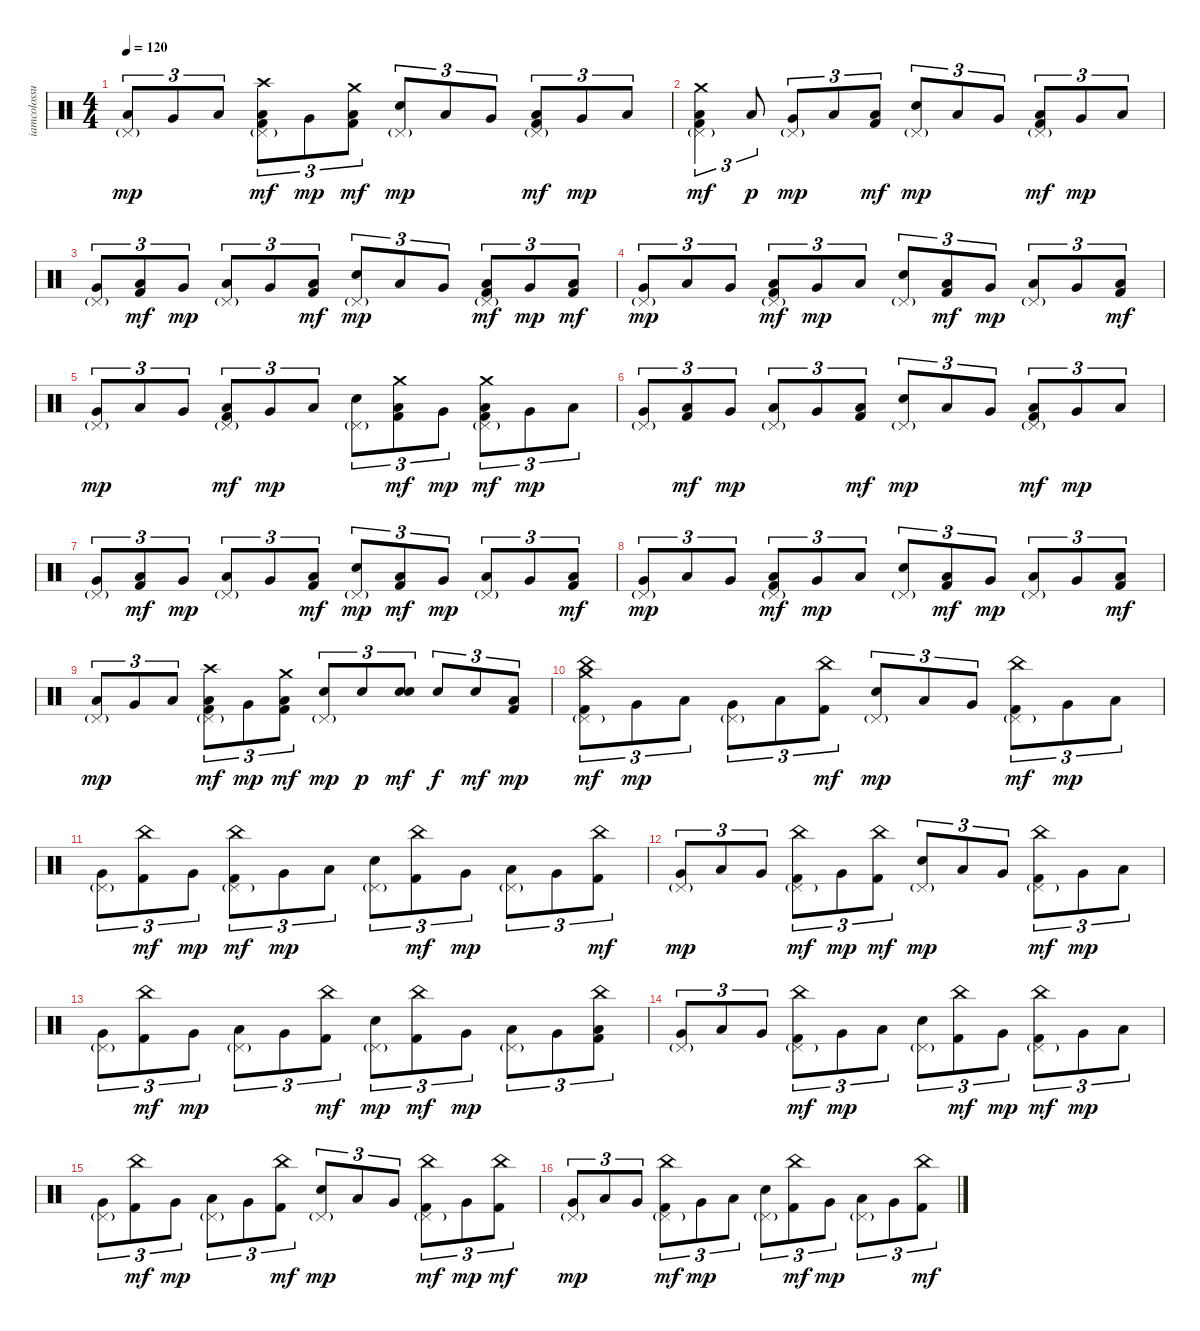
\track ("iamcolossus(Thomas Haake)" "iamcolossu") {instrument percussion}
\staff {score}
\articulation defaults
\ts (4 4)
\tempo 120
\clef neutral
\ks c
("Pedal Hi-Hat (hit)"{g} "Low Floor Tom (hit)").8{tu (3 2) dy mp} "Very Low Tom (hit)".8{tu (3 2)} "Low Floor Tom (hit)".8{tu (3 2)} ("Pedal Hi-Hat (hit)"{g} "Crash high (hit)" "Low Floor Tom (hit)" "Kick (hit) 2").8{tu (3 2) dy mf} "Very Low Tom (hit)".8{tu (3 2) dy mp} ("Crash medium (hit)" "Low Floor Tom (hit)" "Kick (hit) 2").8{tu (3 2) dy mf} ("Pedal Hi-Hat (hit)"{g} "Electric Snare (hit)").8{tu (3 2) dy mp} "Low Floor Tom (hit)".8{tu (3 2)} "Very Low Tom (hit)".8{tu (3 2)} ("Pedal Hi-Hat (hit)"{g} "Low Floor Tom (hit)" "Kick (hit) 2").8{tu (3 2) dy mf} "Very Low Tom (hit)".8{tu (3 2) dy mp} "Low Floor Tom (hit)".8{tu (3 2)} |
("Pedal Hi-Hat (hit)"{g} "Crash medium (hit)" "Low Floor Tom (hit)" "Kick (hit) 2").4{tu (3 2) dy mf} "Low Floor Tom (hit)".8{tu (3 2) dy p} ("Pedal Hi-Hat (hit)"{g} "Very Low Tom (hit)").8{tu (3 2) dy mp} "Low Floor Tom (hit)".8{tu (3 2)} ("Low Floor Tom (hit)" "Kick (hit) 2").8{tu (3 2) dy mf} ("Pedal Hi-Hat (hit)"{g} "Electric Snare (hit)").8{tu (3 2) dy mp} "Low Floor Tom (hit)".8{tu (3 2)} "Very Low Tom (hit)".8{tu (3 2)} ("Pedal Hi-Hat (hit)"{g} "Low Floor Tom (hit)" "Kick (hit) 2").8{tu (3 2) dy mf} "Very Low Tom (hit)".8{tu (3 2) dy mp} "Low Floor Tom (hit)".8{tu (3 2)} |
("Pedal Hi-Hat (hit)"{g} "Very Low Tom (hit)").8{tu (3 2)} ("Low Floor Tom (hit)" "Kick (hit) 2").8{tu (3 2) dy mf} "Very Low Tom (hit)".8{tu (3 2) dy mp} ("Pedal Hi-Hat (hit)"{g} "Low Floor Tom (hit)").8{tu (3 2)} "Very Low Tom (hit)".8{tu (3 2)} ("Low Floor Tom (hit)" "Kick (hit) 2").8{tu (3 2) dy mf} ("Pedal Hi-Hat (hit)"{g} "Electric Snare (hit)").8{tu (3 2) dy mp} "Low Floor Tom (hit)".8{tu (3 2)} "Very Low Tom (hit)".8{tu (3 2)} ("Pedal Hi-Hat (hit)"{g} "Low Floor Tom (hit)" "Kick (hit) 2").8{tu (3 2) dy mf} "Very Low Tom (hit)".8{tu (3 2) dy mp} ("Low Floor Tom (hit)" "Kick (hit) 2").8{tu (3 2) dy mf} |
("Pedal Hi-Hat (hit)"{g} "Very Low Tom (hit)").8{tu (3 2) dy mp} "Low Floor Tom (hit)".8{tu (3 2)} "Very Low Tom (hit)".8{tu (3 2)} ("Pedal Hi-Hat (hit)"{g} "Low Floor Tom (hit)" "Kick (hit) 2").8{tu (3 2) dy mf} "Very Low Tom (hit)".8{tu (3 2) dy mp} "Low Floor Tom (hit)".8{tu (3 2)} ("Pedal Hi-Hat (hit)"{g} "Electric Snare (hit)").8{tu (3 2)} ("Low Floor Tom (hit)" "Kick (hit) 2").8{tu (3 2) dy mf} "Very Low Tom (hit)".8{tu (3 2) dy mp} ("Pedal Hi-Hat (hit)"{g} "Low Floor Tom (hit)").8{tu (3 2)} "Very Low Tom (hit)".8{tu (3 2)} ("Low Floor Tom (hit)" "Kick (hit) 2").8{tu (3 2) dy mf} |
("Pedal Hi-Hat (hit)"{g} "Very Low Tom (hit)").8{tu (3 2) dy mp} "Low Floor Tom (hit)".8{tu (3 2)} "Very Low Tom (hit)".8{tu (3 2)} ("Pedal Hi-Hat (hit)"{g} "Low Floor Tom (hit)" "Kick (hit) 2").8{tu (3 2) dy mf} "Very Low Tom (hit)".8{tu (3 2) dy mp} "Low Floor Tom (hit)".8{tu (3 2)} ("Pedal Hi-Hat (hit)"{g} "Electric Snare (hit)").8{tu (3 2)} ("Crash medium (hit)" "Low Floor Tom (hit)" "Kick (hit) 2").8{tu (3 2) dy mf} "Very Low Tom (hit)".8{tu (3 2) dy mp} ("Pedal Hi-Hat (hit)"{g} "Crash medium (hit)" "Low Floor Tom (hit)" "Kick (hit) 2").8{tu (3 2) dy mf} "Very Low Tom (hit)".8{tu (3 2) dy mp} "Low Floor Tom (hit)".8{tu (3 2)} |
("Pedal Hi-Hat (hit)"{g} "Very Low Tom (hit)").8{tu (3 2)} ("Low Floor Tom (hit)" "Kick (hit) 2").8{tu (3 2) dy mf} "Very Low Tom (hit)".8{tu (3 2) dy mp} ("Pedal Hi-Hat (hit)"{g} "Low Floor Tom (hit)").8{tu (3 2)} "Very Low Tom (hit)".8{tu (3 2)} ("Low Floor Tom (hit)" "Kick (hit) 2").8{tu (3 2) dy mf} ("Pedal Hi-Hat (hit)"{g} "Electric Snare (hit)").8{tu (3 2) dy mp} "Low Floor Tom (hit)".8{tu (3 2)} "Very Low Tom (hit)".8{tu (3 2)} ("Pedal Hi-Hat (hit)"{g} "Low Floor Tom (hit)" "Kick (hit) 2").8{tu (3 2) dy mf} "Very Low Tom (hit)".8{tu (3 2) dy mp} "Low Floor Tom (hit)".8{tu (3 2)} |
("Pedal Hi-Hat (hit)"{g} "Very Low Tom (hit)").8{tu (3 2)} ("Low Floor Tom (hit)" "Kick (hit) 2").8{tu (3 2) dy mf} "Very Low Tom (hit)".8{tu (3 2) dy mp} ("Pedal Hi-Hat (hit)"{g} "Low Floor Tom (hit)").8{tu (3 2)} "Very Low Tom (hit)".8{tu (3 2)} ("Low Floor Tom (hit)" "Kick (hit) 2").8{tu (3 2) dy mf} ("Pedal Hi-Hat (hit)"{g} "Electric Snare (hit)").8{tu (3 2) dy mp} ("Low Floor Tom (hit)" "Kick (hit) 2").8{tu (3 2) dy mf} "Very Low Tom (hit)".8{tu (3 2) dy mp} ("Pedal Hi-Hat (hit)"{g} "Low Floor Tom (hit)").8{tu (3 2)} "Very Low Tom (hit)".8{tu (3 2)} ("Low Floor Tom (hit)" "Kick (hit) 2").8{tu (3 2) dy mf} |
("Pedal Hi-Hat (hit)"{g} "Very Low Tom (hit)").8{tu (3 2) dy mp} "Low Floor Tom (hit)".8{tu (3 2)} "Very Low Tom (hit)".8{tu (3 2)} ("Pedal Hi-Hat (hit)"{g} "Low Floor Tom (hit)" "Kick (hit) 2").8{tu (3 2) dy mf} "Very Low Tom (hit)".8{tu (3 2) dy mp} "Low Floor Tom (hit)".8{tu (3 2)} ("Pedal Hi-Hat (hit)"{g} "Electric Snare (hit)").8{tu (3 2)} ("Low Floor Tom (hit)" "Kick (hit) 2").8{tu (3 2) dy mf} "Very Low Tom (hit)".8{tu (3 2) dy mp} ("Pedal Hi-Hat (hit)"{g} "Low Floor Tom (hit)").8{tu (3 2)} "Very Low Tom (hit)".8{tu (3 2)} ("Low Floor Tom (hit)" "Kick (hit) 2").8{tu (3 2) dy mf} |
("Pedal Hi-Hat (hit)"{g} "Low Floor Tom (hit)").8{tu (3 2) dy mp} "Very Low Tom (hit)".8{tu (3 2)} "Low Floor Tom (hit)".8{tu (3 2)} ("Pedal Hi-Hat (hit)"{g} "Crash high (hit)" "Low Floor Tom (hit)" "Kick (hit) 2").8{tu (3 2) dy mf} "Very Low Tom (hit)".8{tu (3 2) dy mp} ("Crash medium (hit)" "Low Floor Tom (hit)" "Kick (hit) 2").8{tu (3 2) dy mf} ("Pedal Hi-Hat (hit)"{g} "Electric Snare (hit)").8{tu (3 2) dy mp} "Electric Snare (hit)".8{tu (3 2) dy p} ("Electric Snare (hit)" "Electric Snare (hit)").8{tu (3 2) bd 120 dy mf} "Electric Snare (hit)".8{tu (3 2) dy f} "Electric Snare (hit)".8{tu (3 2) dy mf} ("Low Floor Tom (hit)" "Kick (hit) 2").8{tu (3 2) dy mp} |
("Pedal Hi-Hat (hit)"{g} "Crash medium (hit)" "China (hit)" "Kick (hit) 2").8{tu (3 2) dy mf} "Very Low Tom (hit)".8{tu (3 2) dy mp} "Low Floor Tom (hit)".8{tu (3 2)} ("Pedal Hi-Hat (hit)"{g} "Very Low Tom (hit)").8{tu (3 2)} "Low Floor Tom (hit)".8{tu (3 2)} ("China (hit)" "Kick (hit) 2").8{tu (3 2) dy mf} ("Pedal Hi-Hat (hit)"{g} "Electric Snare (hit)").8{tu (3 2) dy mp} "Low Floor Tom (hit)".8{tu (3 2)} "Very Low Tom (hit)".8{tu (3 2)} ("Pedal Hi-Hat (hit)"{g} "China (hit)" "Kick (hit) 2").8{tu (3 2) dy mf} "Very Low Tom (hit)".8{tu (3 2) dy mp} "Low Floor Tom (hit)".8{tu (3 2)} |
("Pedal Hi-Hat (hit)"{g} "Very Low Tom (hit)").8{tu (3 2)} ("China (hit)" "Kick (hit) 2").8{tu (3 2) dy mf} "Very Low Tom (hit)".8{tu (3 2) dy mp} ("Pedal Hi-Hat (hit)"{g} "China (hit)" "Kick (hit) 2").8{tu (3 2) dy mf} "Very Low Tom (hit)".8{tu (3 2) dy mp} "Low Floor Tom (hit)".8{tu (3 2)} ("Pedal Hi-Hat (hit)"{g} "Electric Snare (hit)").8{tu (3 2)} ("China (hit)" "Kick (hit) 2").8{tu (3 2) dy mf} "Very Low Tom (hit)".8{tu (3 2) dy mp} ("Pedal Hi-Hat (hit)"{g} "Low Floor Tom (hit)").8{tu (3 2)} "Very Low Tom (hit)".8{tu (3 2)} ("China (hit)" "Kick (hit) 2").8{tu (3 2) dy mf} |
("Pedal Hi-Hat (hit)"{g} "Very Low Tom (hit)").8{tu (3 2) dy mp} "Low Floor Tom (hit)".8{tu (3 2)} "Very Low Tom (hit)".8{tu (3 2)} ("Pedal Hi-Hat (hit)"{g} "China (hit)" "Kick (hit) 2").8{tu (3 2) dy mf} "Very Low Tom (hit)".8{tu (3 2) dy mp} ("China (hit)" "Kick (hit) 2").8{tu (3 2) dy mf} ("Pedal Hi-Hat (hit)"{g} "Electric Snare (hit)").8{tu (3 2) dy mp} "Low Floor Tom (hit)".8{tu (3 2)} "Very Low Tom (hit)".8{tu (3 2)} ("Pedal Hi-Hat (hit)"{g} "China (hit)" "Kick (hit) 2").8{tu (3 2) dy mf} "Very Low Tom (hit)".8{tu (3 2) dy mp} "Low Floor Tom (hit)".8{tu (3 2)} |
("Pedal Hi-Hat (hit)"{g} "Very Low Tom (hit)").8{tu (3 2)} ("China (hit)" "Kick (hit) 2").8{tu (3 2) dy mf} "Very Low Tom (hit)".8{tu (3 2) dy mp} ("Pedal Hi-Hat (hit)"{g} "Low Floor Tom (hit)").8{tu (3 2)} "Very Low Tom (hit)".8{tu (3 2)} ("China (hit)" "Kick (hit) 2").8{tu (3 2) dy mf} ("Pedal Hi-Hat (hit)"{g} "Electric Snare (hit)").8{tu (3 2) dy mp} ("China (hit)" "Kick (hit) 2").8{tu (3 2) dy mf} "Very Low Tom (hit)".8{tu (3 2) dy mp} ("Pedal Hi-Hat (hit)"{g} "Low Floor Tom (hit)").8{tu (3 2)} "Very Low Tom (hit)".8{tu (3 2)} ("China (hit)" "Low Floor Tom (hit)" "Kick (hit) 2").8{tu (3 2)} |
("Pedal Hi-Hat (hit)"{g} "Very Low Tom (hit)").8{tu (3 2)} "Low Floor Tom (hit)".8{tu (3 2)} "Very Low Tom (hit)".8{tu (3 2)} ("Pedal Hi-Hat (hit)"{g} "China (hit)" "Kick (hit) 2").8{tu (3 2) dy mf} "Very Low Tom (hit)".8{tu (3 2) dy mp} "Low Floor Tom (hit)".8{tu (3 2)} ("Pedal Hi-Hat (hit)"{g} "Electric Snare (hit)").8{tu (3 2)} ("China (hit)" "Kick (hit) 2").8{tu (3 2) dy mf} "Very Low Tom (hit)".8{tu (3 2) dy mp} ("Pedal Hi-Hat (hit)"{g} "China (hit)" "Kick (hit) 2").8{tu (3 2) dy mf} "Very Low Tom (hit)".8{tu (3 2) dy mp} "Low Floor Tom (hit)".8{tu (3 2)} |
("Pedal Hi-Hat (hit)"{g} "Very Low Tom (hit)").8{tu (3 2)} ("China (hit)" "Kick (hit) 2").8{tu (3 2) dy mf} "Very Low Tom (hit)".8{tu (3 2) dy mp} ("Pedal Hi-Hat (hit)"{g} "Low Floor Tom (hit)").8{tu (3 2)} "Very Low Tom (hit)".8{tu (3 2)} ("China (hit)" "Kick (hit) 2").8{tu (3 2) dy mf} ("Pedal Hi-Hat (hit)"{g} "Electric Snare (hit)").8{tu (3 2) dy mp} "Low Floor Tom (hit)".8{tu (3 2)} "Very Low Tom (hit)".8{tu (3 2)} ("Pedal Hi-Hat (hit)"{g} "China (hit)" "Kick (hit) 2").8{tu (3 2) dy mf} "Very Low Tom (hit)".8{tu (3 2) dy mp} ("China (hit)" "Kick (hit) 2").8{tu (3 2) dy mf} |
("Pedal Hi-Hat (hit)"{g} "Very Low Tom (hit)").8{tu (3 2) dy mp} "Low Floor Tom (hit)".8{tu (3 2)} "Very Low Tom (hit)".8{tu (3 2)} ("Pedal Hi-Hat (hit)"{g} "China (hit)" "Kick (hit) 2").8{tu (3 2) dy mf} "Very Low Tom (hit)".8{tu (3 2) dy mp} "Low Floor Tom (hit)".8{tu (3 2)} ("Pedal Hi-Hat (hit)"{g} "Electric Snare (hit)").8{tu (3 2)} ("China (hit)" "Kick (hit) 2").8{tu (3 2) dy mf} "Very Low Tom (hit)".8{tu (3 2) dy mp} ("Pedal Hi-Hat (hit)"{g} "Low Floor Tom (hit)").8{tu (3 2)} "Very Low Tom (hit)".8{tu (3 2)} ("China (hit)" "Kick (hit) 2").8{tu (3 2) dy mf}
